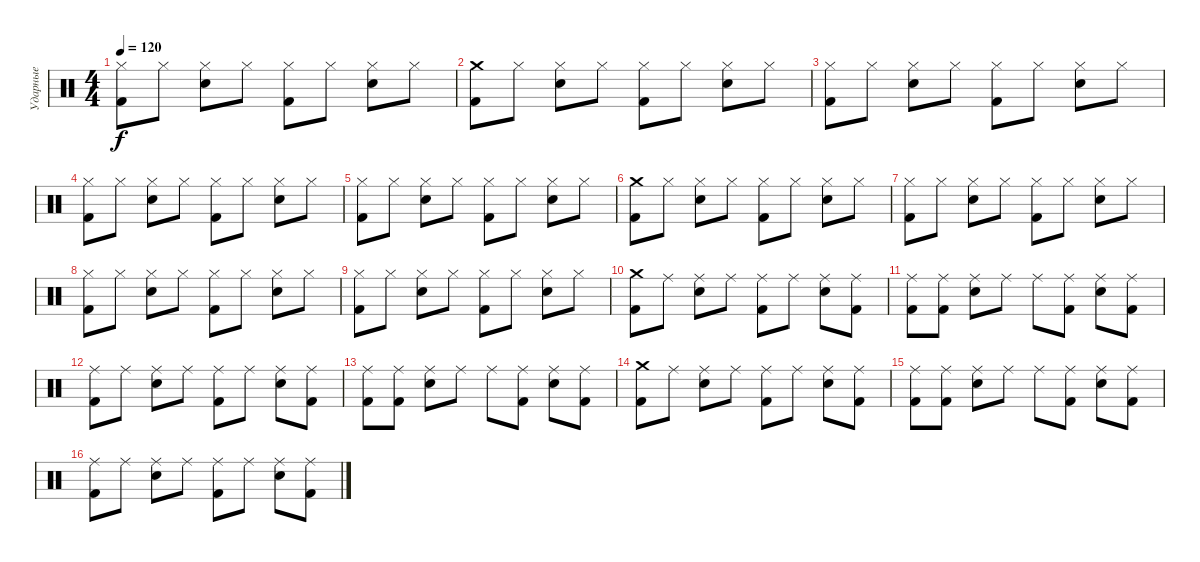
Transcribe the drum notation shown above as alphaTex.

\track ("Ударные" "Ударные") {instrument percussion}
\staff {score}
\articulation defaults
\ts (4 4)
\tempo 120
\clef neutral
\ks c
("Hi-Hat (closed)" "Kick (hit) 2").8{dy f} "Hi-Hat (closed)".8 ("Hi-Hat (closed)" "Electric Snare (hit)").8 "Hi-Hat (closed)".8 ("Hi-Hat (closed)" "Kick (hit) 2").8 "Hi-Hat (closed)".8 ("Hi-Hat (closed)" "Electric Snare (hit)").8 "Hi-Hat (closed)".8 |
("Crash medium (hit)" "Kick (hit) 2").8 "Hi-Hat (closed)".8 ("Hi-Hat (closed)" "Electric Snare (hit)").8 "Hi-Hat (closed)".8 ("Hi-Hat (closed)" "Kick (hit) 2").8 "Hi-Hat (closed)".8 ("Hi-Hat (closed)" "Electric Snare (hit)").8 "Hi-Hat (closed)".8 |
("Hi-Hat (closed)" "Kick (hit) 2").8 "Hi-Hat (closed)".8 ("Hi-Hat (closed)" "Electric Snare (hit)").8 "Hi-Hat (closed)".8 ("Hi-Hat (closed)" "Kick (hit) 2").8 "Hi-Hat (closed)".8 ("Hi-Hat (closed)" "Electric Snare (hit)").8 "Hi-Hat (closed)".8 |
("Hi-Hat (closed)" "Kick (hit) 2").8 "Hi-Hat (closed)".8 ("Hi-Hat (closed)" "Electric Snare (hit)").8 "Hi-Hat (closed)".8 ("Hi-Hat (closed)" "Kick (hit) 2").8 "Hi-Hat (closed)".8 ("Hi-Hat (closed)" "Electric Snare (hit)").8 "Hi-Hat (closed)".8 |
("Hi-Hat (closed)" "Kick (hit) 2").8 "Hi-Hat (closed)".8 ("Hi-Hat (closed)" "Electric Snare (hit)").8 "Hi-Hat (closed)".8 ("Hi-Hat (closed)" "Kick (hit) 2").8 "Hi-Hat (closed)".8 ("Hi-Hat (closed)" "Electric Snare (hit)").8 "Hi-Hat (closed)".8 |
("Crash medium (hit)" "Kick (hit) 2").8 "Hi-Hat (closed)".8 ("Hi-Hat (closed)" "Electric Snare (hit)").8 "Hi-Hat (closed)".8 ("Hi-Hat (closed)" "Kick (hit) 2").8 "Hi-Hat (closed)".8 ("Hi-Hat (closed)" "Electric Snare (hit)").8 "Hi-Hat (closed)".8 |
("Hi-Hat (closed)" "Kick (hit) 2").8 "Hi-Hat (closed)".8 ("Hi-Hat (closed)" "Electric Snare (hit)").8 "Hi-Hat (closed)".8 ("Hi-Hat (closed)" "Kick (hit) 2").8 "Hi-Hat (closed)".8 ("Hi-Hat (closed)" "Electric Snare (hit)").8 "Hi-Hat (closed)".8 |
("Hi-Hat (closed)" "Kick (hit) 2").8 "Hi-Hat (closed)".8 ("Hi-Hat (closed)" "Electric Snare (hit)").8 "Hi-Hat (closed)".8 ("Hi-Hat (closed)" "Kick (hit) 2").8 "Hi-Hat (closed)".8 ("Hi-Hat (closed)" "Electric Snare (hit)").8 "Hi-Hat (closed)".8 |
("Hi-Hat (closed)" "Kick (hit) 2").8 "Hi-Hat (closed)".8 ("Hi-Hat (closed)" "Electric Snare (hit)").8 "Hi-Hat (closed)".8 ("Hi-Hat (closed)" "Kick (hit) 2").8 "Hi-Hat (closed)".8 ("Hi-Hat (closed)" "Electric Snare (hit)").8 "Hi-Hat (closed)".8 |
("Crash medium (hit)" "Kick (hit) 2").8 "Ride (middle)".8 ("Ride (middle)" "Electric Snare (hit)").8 "Ride (middle)".8 ("Ride (middle)" "Kick (hit) 2").8 "Ride (middle)".8 ("Ride (middle)" "Electric Snare (hit)").8 ("Ride (middle)" "Kick (hit) 2").8 |
("Ride (middle)" "Kick (hit) 2").8 ("Ride (middle)" "Kick (hit) 2").8 ("Ride (middle)" "Electric Snare (hit)").8 "Ride (middle)".8 "Ride (middle)".8 ("Ride (middle)" "Kick (hit) 2").8 ("Ride (middle)" "Electric Snare (hit)").8 ("Ride (middle)" "Kick (hit) 2").8 |
("Ride (middle)" "Kick (hit) 2").8 "Ride (middle)".8 ("Ride (middle)" "Electric Snare (hit)").8 "Ride (middle)".8 ("Ride (middle)" "Kick (hit) 2").8 "Ride (middle)".8 ("Ride (middle)" "Electric Snare (hit)").8 ("Ride (middle)" "Kick (hit) 2").8 |
("Ride (middle)" "Kick (hit) 2").8 ("Ride (middle)" "Kick (hit) 2").8 ("Ride (middle)" "Electric Snare (hit)").8 "Ride (middle)".8 "Ride (middle)".8 ("Ride (middle)" "Kick (hit) 2").8 ("Ride (middle)" "Electric Snare (hit)").8 ("Ride (middle)" "Kick (hit) 2").8 |
("Crash medium (hit)" "Kick (hit) 2").8 "Ride (middle)".8 ("Ride (middle)" "Electric Snare (hit)").8 "Ride (middle)".8 ("Ride (middle)" "Kick (hit) 2").8 "Ride (middle)".8 ("Ride (middle)" "Electric Snare (hit)").8 ("Ride (middle)" "Kick (hit) 2").8 |
("Ride (middle)" "Kick (hit) 2").8 ("Ride (middle)" "Kick (hit) 2").8 ("Ride (middle)" "Electric Snare (hit)").8 "Ride (middle)".8 "Ride (middle)".8 ("Ride (middle)" "Kick (hit) 2").8 ("Ride (middle)" "Electric Snare (hit)").8 ("Ride (middle)" "Kick (hit) 2").8 |
("Ride (middle)" "Kick (hit) 2").8 "Ride (middle)".8 ("Ride (middle)" "Electric Snare (hit)").8 "Ride (middle)".8 ("Ride (middle)" "Kick (hit) 2").8 "Ride (middle)".8 ("Ride (middle)" "Electric Snare (hit)").8 ("Ride (middle)" "Kick (hit) 2").8
